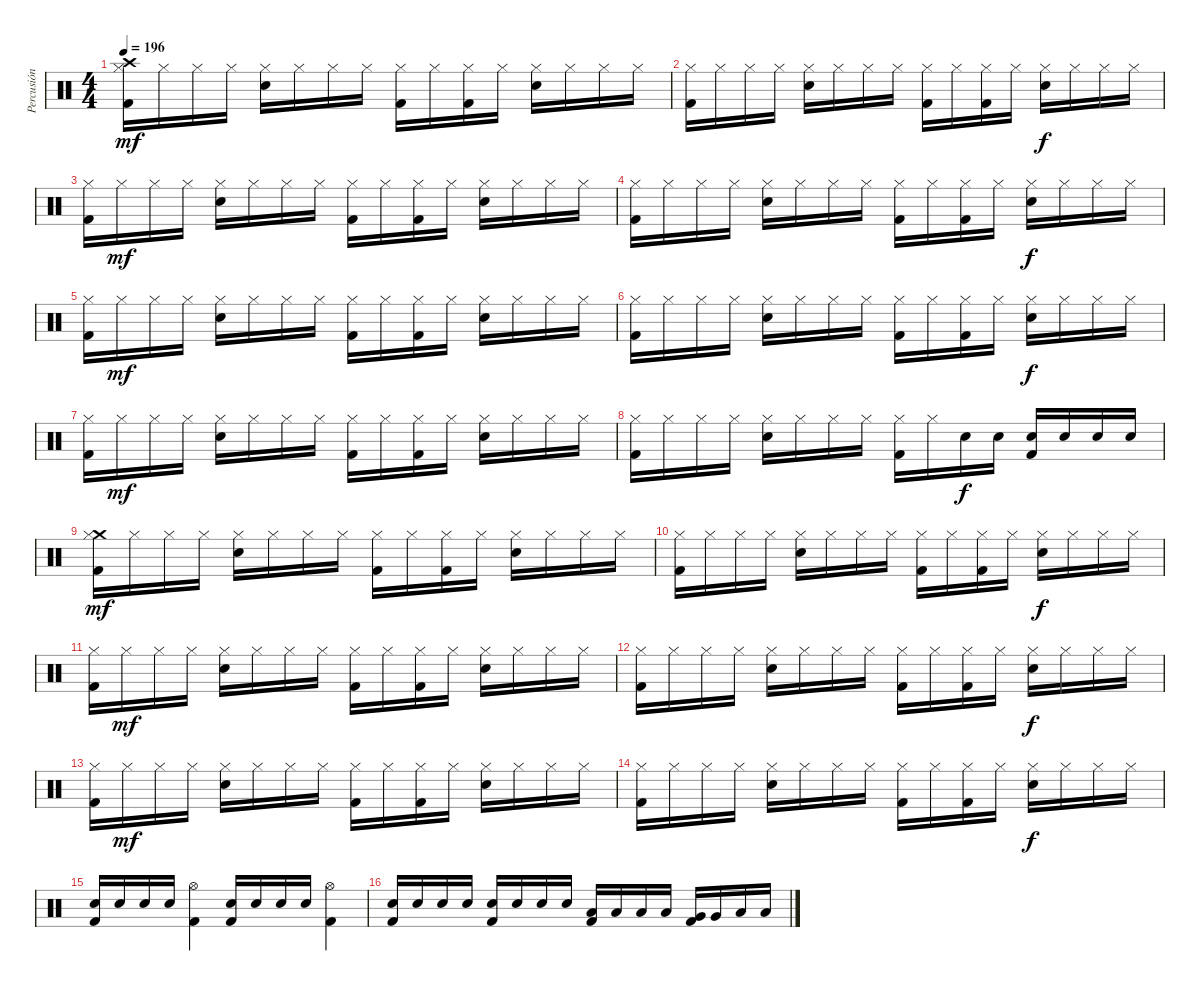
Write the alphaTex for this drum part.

\track ("Percusión" "Percusión") {instrument percussion}
\staff {score}
\articulation defaults
\ts (4 4)
\tempo 196
\clef neutral
\ks c
("Crash high (hit)" "Hi-Hat (closed)" "Kick (hit) 2").16{dy mf} "Hi-Hat (closed)".16 "Hi-Hat (closed)".16 "Hi-Hat (closed)".16 ("Hi-Hat (closed)" "Electric Snare (hit)").16 "Hi-Hat (closed)".16 "Hi-Hat (closed)".16 "Hi-Hat (closed)".16 ("Hi-Hat (closed)" "Kick (hit) 2").16 "Hi-Hat (closed)".16 ("Hi-Hat (closed)" "Kick (hit) 2").16 "Hi-Hat (closed)".16 ("Hi-Hat (closed)" "Electric Snare (hit)").16 "Hi-Hat (closed)".16 "Hi-Hat (closed)".16 "Hi-Hat (closed)".16 |
("Hi-Hat (closed)" "Kick (hit) 2").16 "Hi-Hat (closed)".16 "Hi-Hat (closed)".16 "Hi-Hat (closed)".16 ("Hi-Hat (closed)" "Electric Snare (hit)").16 "Hi-Hat (closed)".16 "Hi-Hat (closed)".16 "Hi-Hat (closed)".16 ("Hi-Hat (closed)" "Kick (hit) 2").16 "Hi-Hat (closed)".16 ("Hi-Hat (closed)" "Kick (hit) 2").16 "Hi-Hat (closed)".16 ("Hi-Hat (closed)" "Electric Snare (hit)").16{dy f} "Hi-Hat (closed)".16 "Hi-Hat (closed)".16 "Hi-Hat (closed)".16 |
("Hi-Hat (closed)" "Kick (hit) 2").16 "Hi-Hat (closed)".16{dy mf} "Hi-Hat (closed)".16 "Hi-Hat (closed)".16 ("Hi-Hat (closed)" "Electric Snare (hit)").16 "Hi-Hat (closed)".16 "Hi-Hat (closed)".16 "Hi-Hat (closed)".16 ("Hi-Hat (closed)" "Kick (hit) 2").16 "Hi-Hat (closed)".16 ("Hi-Hat (closed)" "Kick (hit) 2").16 "Hi-Hat (closed)".16 ("Hi-Hat (closed)" "Electric Snare (hit)").16 "Hi-Hat (closed)".16 "Hi-Hat (closed)".16 "Hi-Hat (closed)".16 |
("Hi-Hat (closed)" "Kick (hit) 2").16 "Hi-Hat (closed)".16 "Hi-Hat (closed)".16 "Hi-Hat (closed)".16 ("Hi-Hat (closed)" "Electric Snare (hit)").16 "Hi-Hat (closed)".16 "Hi-Hat (closed)".16 "Hi-Hat (closed)".16 ("Hi-Hat (closed)" "Kick (hit) 2").16 "Hi-Hat (closed)".16 ("Hi-Hat (closed)" "Kick (hit) 2").16 "Hi-Hat (closed)".16 ("Hi-Hat (closed)" "Electric Snare (hit)").16{dy f} "Hi-Hat (closed)".16 "Hi-Hat (closed)".16 "Hi-Hat (closed)".16 |
("Hi-Hat (closed)" "Kick (hit) 2").16 "Hi-Hat (closed)".16{dy mf} "Hi-Hat (closed)".16 "Hi-Hat (closed)".16 ("Hi-Hat (closed)" "Electric Snare (hit)").16 "Hi-Hat (closed)".16 "Hi-Hat (closed)".16 "Hi-Hat (closed)".16 ("Hi-Hat (closed)" "Kick (hit) 2").16 "Hi-Hat (closed)".16 ("Hi-Hat (closed)" "Kick (hit) 2").16 "Hi-Hat (closed)".16 ("Hi-Hat (closed)" "Electric Snare (hit)").16 "Hi-Hat (closed)".16 "Hi-Hat (closed)".16 "Hi-Hat (closed)".16 |
("Hi-Hat (closed)" "Kick (hit) 2").16 "Hi-Hat (closed)".16 "Hi-Hat (closed)".16 "Hi-Hat (closed)".16 ("Hi-Hat (closed)" "Electric Snare (hit)").16 "Hi-Hat (closed)".16 "Hi-Hat (closed)".16 "Hi-Hat (closed)".16 ("Hi-Hat (closed)" "Kick (hit) 2").16 "Hi-Hat (closed)".16 ("Hi-Hat (closed)" "Kick (hit) 2").16 "Hi-Hat (closed)".16 ("Hi-Hat (closed)" "Electric Snare (hit)").16{dy f} "Hi-Hat (closed)".16 "Hi-Hat (closed)".16 "Hi-Hat (closed)".16 |
("Hi-Hat (closed)" "Kick (hit) 2").16 "Hi-Hat (closed)".16{dy mf} "Hi-Hat (closed)".16 "Hi-Hat (closed)".16 ("Hi-Hat (closed)" "Electric Snare (hit)").16 "Hi-Hat (closed)".16 "Hi-Hat (closed)".16 "Hi-Hat (closed)".16 ("Hi-Hat (closed)" "Kick (hit) 2").16 "Hi-Hat (closed)".16 ("Hi-Hat (closed)" "Kick (hit) 2").16 "Hi-Hat (closed)".16 ("Hi-Hat (closed)" "Electric Snare (hit)").16 "Hi-Hat (closed)".16 "Hi-Hat (closed)".16 "Hi-Hat (closed)".16 |
("Hi-Hat (closed)" "Kick (hit) 2").16 "Hi-Hat (closed)".16 "Hi-Hat (closed)".16 "Hi-Hat (closed)".16 ("Hi-Hat (closed)" "Electric Snare (hit)").16 "Hi-Hat (closed)".16 "Hi-Hat (closed)".16 "Hi-Hat (closed)".16 ("Hi-Hat (closed)" "Kick (hit) 2").16 "Hi-Hat (closed)".16 "Electric Snare (hit)".16{dy f} "Electric Snare (hit)".16 ("Electric Snare (hit)" "Kick (hit) 2").16 "Electric Snare (hit)".16 "Electric Snare (hit)".16 "Electric Snare (hit)".16 |
("Crash medium (hit)" "Hi-Hat (closed)" "Kick (hit) 2").16{dy mf} "Hi-Hat (closed)".16 "Hi-Hat (closed)".16 "Hi-Hat (closed)".16 ("Hi-Hat (closed)" "Electric Snare (hit)").16 "Hi-Hat (closed)".16 "Hi-Hat (closed)".16 "Hi-Hat (closed)".16 ("Hi-Hat (closed)" "Kick (hit) 2").16 "Hi-Hat (closed)".16 ("Hi-Hat (closed)" "Kick (hit) 2").16 "Hi-Hat (closed)".16 ("Hi-Hat (closed)" "Electric Snare (hit)").16 "Hi-Hat (closed)".16 "Hi-Hat (closed)".16 "Hi-Hat (closed)".16 |
("Hi-Hat (closed)" "Kick (hit) 2").16 "Hi-Hat (closed)".16 "Hi-Hat (closed)".16 "Hi-Hat (closed)".16 ("Hi-Hat (closed)" "Electric Snare (hit)").16 "Hi-Hat (closed)".16 "Hi-Hat (closed)".16 "Hi-Hat (closed)".16 ("Hi-Hat (closed)" "Kick (hit) 2").16 "Hi-Hat (closed)".16 ("Hi-Hat (closed)" "Kick (hit) 2").16 "Hi-Hat (closed)".16 ("Hi-Hat (closed)" "Electric Snare (hit)").16{dy f} "Hi-Hat (closed)".16 "Hi-Hat (closed)".16 "Hi-Hat (closed)".16 |
("Hi-Hat (closed)" "Kick (hit) 2").16 "Hi-Hat (closed)".16{dy mf} "Hi-Hat (closed)".16 "Hi-Hat (closed)".16 ("Hi-Hat (closed)" "Electric Snare (hit)").16 "Hi-Hat (closed)".16 "Hi-Hat (closed)".16 "Hi-Hat (closed)".16 ("Hi-Hat (closed)" "Kick (hit) 2").16 "Hi-Hat (closed)".16 ("Hi-Hat (closed)" "Kick (hit) 2").16 "Hi-Hat (closed)".16 ("Hi-Hat (closed)" "Electric Snare (hit)").16 "Hi-Hat (closed)".16 "Hi-Hat (closed)".16 "Hi-Hat (closed)".16 |
("Hi-Hat (closed)" "Kick (hit) 2").16 "Hi-Hat (closed)".16 "Hi-Hat (closed)".16 "Hi-Hat (closed)".16 ("Hi-Hat (closed)" "Electric Snare (hit)").16 "Hi-Hat (closed)".16 "Hi-Hat (closed)".16 "Hi-Hat (closed)".16 ("Hi-Hat (closed)" "Kick (hit) 2").16 "Hi-Hat (closed)".16 ("Hi-Hat (closed)" "Kick (hit) 2").16 "Hi-Hat (closed)".16 ("Hi-Hat (closed)" "Electric Snare (hit)").16{dy f} "Hi-Hat (closed)".16 "Hi-Hat (closed)".16 "Hi-Hat (closed)".16 |
("Hi-Hat (closed)" "Kick (hit) 2").16 "Hi-Hat (closed)".16{dy mf} "Hi-Hat (closed)".16 "Hi-Hat (closed)".16 ("Hi-Hat (closed)" "Electric Snare (hit)").16 "Hi-Hat (closed)".16 "Hi-Hat (closed)".16 "Hi-Hat (closed)".16 ("Hi-Hat (closed)" "Kick (hit) 2").16 "Hi-Hat (closed)".16 ("Hi-Hat (closed)" "Kick (hit) 2").16 "Hi-Hat (closed)".16 ("Hi-Hat (closed)" "Electric Snare (hit)").16 "Hi-Hat (closed)".16 "Hi-Hat (closed)".16 "Hi-Hat (closed)".16 |
("Hi-Hat (closed)" "Kick (hit) 2").16 "Hi-Hat (closed)".16 "Hi-Hat (closed)".16 "Hi-Hat (closed)".16 ("Hi-Hat (closed)" "Electric Snare (hit)").16 "Hi-Hat (closed)".16 "Hi-Hat (closed)".16 "Hi-Hat (closed)".16 ("Hi-Hat (closed)" "Kick (hit) 2").16 "Hi-Hat (closed)".16 ("Hi-Hat (closed)" "Kick (hit) 2").16 "Hi-Hat (closed)".16 ("Hi-Hat (closed)" "Electric Snare (hit)").16{dy f} "Hi-Hat (closed)".16 "Hi-Hat (closed)".16 "Hi-Hat (closed)".16 |
("Electric Snare (hit)" "Kick (hit) 2").16 "Electric Snare (hit)".16 "Electric Snare (hit)".16 "Electric Snare (hit)".16 ("Hi-Hat (open)" "Kick (hit) 2").4 ("Electric Snare (hit)" "Kick (hit) 2").16 "Electric Snare (hit)".16 "Electric Snare (hit)".16 "Electric Snare (hit)".16 ("Hi-Hat (open)" "Kick (hit) 2").4 |
("Electric Snare (hit)" "Kick (hit) 2").16 "Electric Snare (hit)".16 "Electric Snare (hit)".16 "Electric Snare (hit)".16 ("Electric Snare (hit)" "Kick (hit) 2").16 "Electric Snare (hit)".16 "Electric Snare (hit)".16 "Electric Snare (hit)".16 ("Low Tom (hit)" "Kick (hit) 2").16 "Low Tom (hit)".16 "Low Tom (hit)".16 "Low Tom (hit)".16 ("Very Low Tom (hit)" "Kick (hit) 2").16 "Very Low Tom (hit)".16 "Low Floor Tom (hit)".16 "Low Floor Tom (hit)".16
